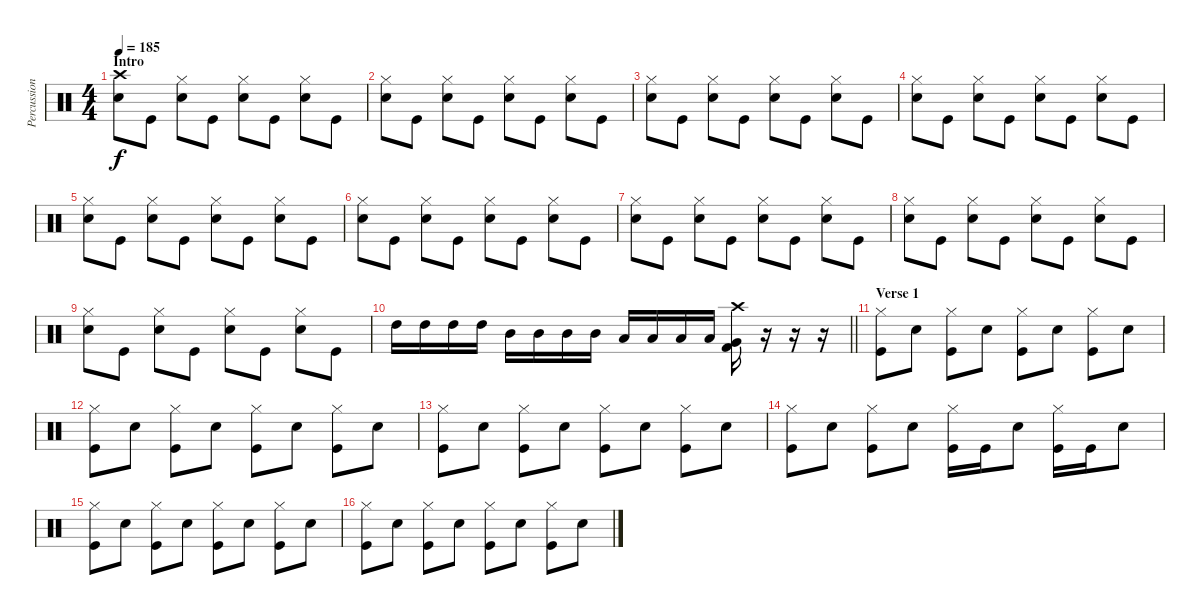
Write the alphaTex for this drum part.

\track ("Percussion" "Percussion") {instrument percussion}
\staff {score}
\articulation defaults
\ts (4 4)
\section ("" "Intro")
\tempo 185
\clef neutral
\ks c
("Crash high (hit)" "Snare (hit) 2").8{dy f} "Kick (hit)".8 ("Hi-Hat (closed)" "Snare (hit) 2").8 "Kick (hit)".8 ("Hi-Hat (closed)" "Snare (hit) 2").8 "Kick (hit)".8 ("Hi-Hat (closed)" "Snare (hit) 2").8 "Kick (hit)".8 |
("Hi-Hat (closed)" "Snare (hit) 2").8 "Kick (hit)".8 ("Hi-Hat (closed)" "Snare (hit) 2").8 "Kick (hit)".8 ("Hi-Hat (closed)" "Snare (hit) 2").8 "Kick (hit)".8 ("Hi-Hat (closed)" "Snare (hit) 2").8 "Kick (hit)".8 |
("Hi-Hat (closed)" "Snare (hit) 2").8 "Kick (hit)".8 ("Hi-Hat (closed)" "Snare (hit) 2").8 "Kick (hit)".8 ("Hi-Hat (closed)" "Snare (hit) 2").8 "Kick (hit)".8 ("Hi-Hat (closed)" "Snare (hit) 2").8 "Kick (hit)".8 |
("Hi-Hat (closed)" "Snare (hit) 2").8 "Kick (hit)".8 ("Hi-Hat (closed)" "Snare (hit) 2").8 "Kick (hit)".8 ("Hi-Hat (closed)" "Snare (hit) 2").8 "Kick (hit)".8 ("Hi-Hat (closed)" "Snare (hit) 2").8 "Kick (hit)".8 |
("Hi-Hat (closed)" "Snare (hit) 2").8 "Kick (hit)".8 ("Hi-Hat (closed)" "Snare (hit) 2").8 "Kick (hit)".8 ("Hi-Hat (closed)" "Snare (hit) 2").8 "Kick (hit)".8 ("Hi-Hat (closed)" "Snare (hit) 2").8 "Kick (hit)".8 |
("Hi-Hat (closed)" "Snare (hit) 2").8 "Kick (hit)".8 ("Hi-Hat (closed)" "Snare (hit) 2").8 "Kick (hit)".8 ("Hi-Hat (closed)" "Snare (hit) 2").8 "Kick (hit)".8 ("Hi-Hat (closed)" "Snare (hit) 2").8 "Kick (hit)".8 |
("Hi-Hat (closed)" "Snare (hit) 2").8 "Kick (hit)".8 ("Hi-Hat (closed)" "Snare (hit) 2").8 "Kick (hit)".8 ("Hi-Hat (closed)" "Snare (hit) 2").8 "Kick (hit)".8 ("Hi-Hat (closed)" "Snare (hit) 2").8 "Kick (hit)".8 |
("Hi-Hat (closed)" "Snare (hit) 2").8 "Kick (hit)".8 ("Hi-Hat (closed)" "Snare (hit) 2").8 "Kick (hit)".8 ("Hi-Hat (closed)" "Snare (hit) 2").8 "Kick (hit)".8 ("Hi-Hat (closed)" "Snare (hit) 2").8 "Kick (hit)".8 |
("Hi-Hat (closed)" "Snare (hit) 2").8 "Kick (hit)".8 ("Hi-Hat (closed)" "Snare (hit) 2").8 "Kick (hit)".8 ("Hi-Hat (closed)" "Snare (hit) 2").8 "Kick (hit)".8 ("Hi-Hat (closed)" "Snare (hit) 2").8 "Kick (hit)".8 |
\barLineRight lightlight "High Tom (hit)".16 "High Tom (hit)".16 "High Tom (hit)".16 "High Tom (hit)".16 "Mid Tom (hit)".16 "Mid Tom (hit)".16 "Mid Tom (hit)".16 "Mid Tom (hit)".16 "Low Tom (hit)".16 "Low Tom (hit)".16 "Low Tom (hit)".16 "Low Tom (hit)".16
("Crash high (hit)" "Very Low Tom (hit)" "Kick (hit) 2").16 r.16 r.16 r.16 |
\section ("" "Verse 1")
("Hi-Hat (closed)" "Kick (hit)").8 "Snare (hit) 2".8 ("Hi-Hat (closed)" "Kick (hit)").8 "Snare (hit) 2".8 ("Hi-Hat (closed)" "Kick (hit)").8 "Snare (hit) 2".8 ("Hi-Hat (closed)" "Kick (hit)").8 "Snare (hit) 2".8 |
("Hi-Hat (closed)" "Kick (hit)").8 "Snare (hit) 2".8 ("Hi-Hat (closed)" "Kick (hit)").8 "Snare (hit) 2".8 ("Hi-Hat (closed)" "Kick (hit)").8 "Snare (hit) 2".8 ("Hi-Hat (closed)" "Kick (hit)").8 "Snare (hit) 2".8 |
("Hi-Hat (closed)" "Kick (hit)").8 "Snare (hit) 2".8 ("Hi-Hat (closed)" "Kick (hit)").8 "Snare (hit) 2".8 ("Hi-Hat (closed)" "Kick (hit)").8 "Snare (hit) 2".8 ("Hi-Hat (closed)" "Kick (hit)").8 "Snare (hit) 2".8 |
("Hi-Hat (closed)" "Kick (hit)").8 "Snare (hit) 2".8 ("Hi-Hat (closed)" "Kick (hit)").8 "Snare (hit) 2".8 ("Hi-Hat (closed)" "Kick (hit)").16 "Kick (hit)".16 "Snare (hit) 2".8 ("Hi-Hat (closed)" "Kick (hit)").16 "Kick (hit)".16 "Snare (hit) 2".8 |
("Hi-Hat (closed)" "Kick (hit)").8 "Snare (hit) 2".8 ("Hi-Hat (closed)" "Kick (hit)").8 "Snare (hit) 2".8 ("Hi-Hat (closed)" "Kick (hit)").8 "Snare (hit) 2".8 ("Hi-Hat (closed)" "Kick (hit)").8 "Snare (hit) 2".8 |
("Hi-Hat (closed)" "Kick (hit)").8 "Snare (hit) 2".8 ("Hi-Hat (closed)" "Kick (hit)").8 "Snare (hit) 2".8 ("Hi-Hat (closed)" "Kick (hit)").8 "Snare (hit) 2".8 ("Hi-Hat (closed)" "Kick (hit)").8 "Snare (hit) 2".8
